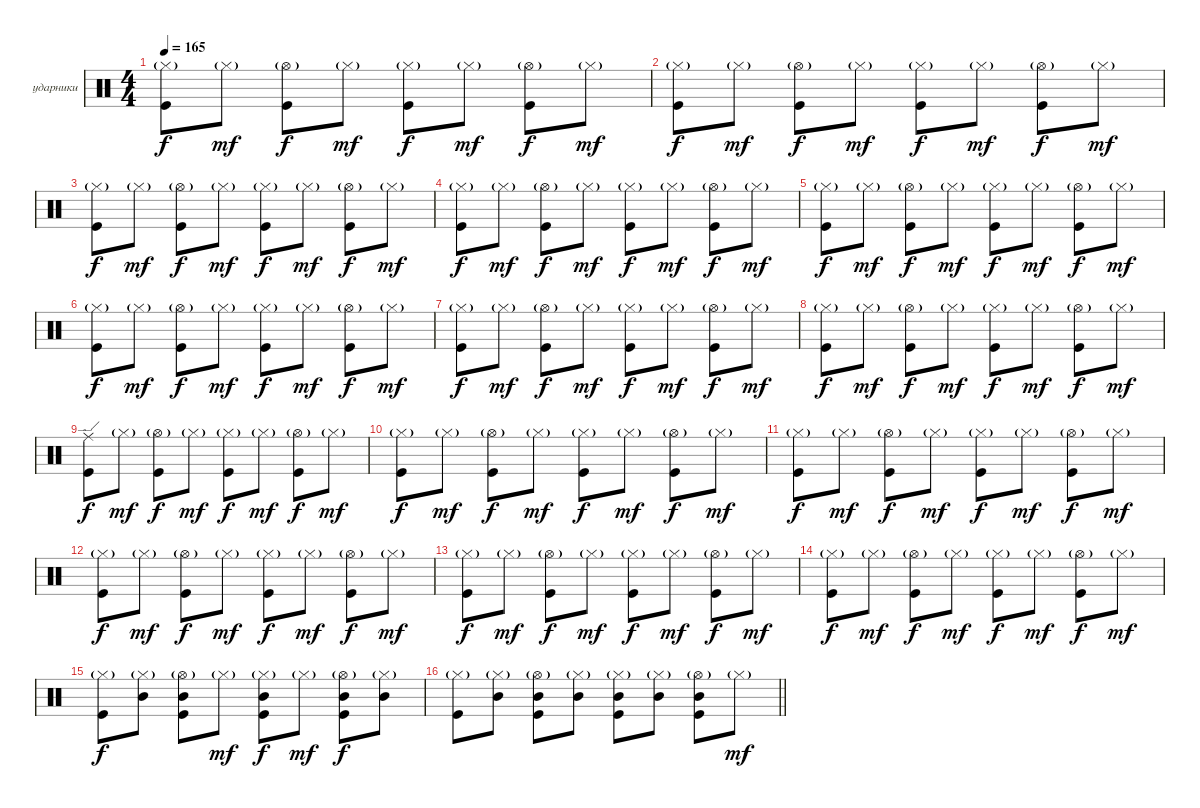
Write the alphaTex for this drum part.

\bracketExtendMode groupsimilarinstruments
\firstSystemTrackNameOrientation horizontal
\otherSystemsTrackNameOrientation horizontal
\track ("Георгий Гурьянов" "ударники") {instrument percussion}
\staff {score}
\articulation defaults
\ts (4 4)
\tempo 165
\clef neutral
\scale
0.333333
\ks c
("Hi-Hat (closed)"{g} "Kick (hit)").8{dy f} "Hi-Hat (closed)"{g}.8{dy mf} ("Hi-Hat (open)"{g} "Kick (hit)").8{dy f} "Hi-Hat (closed)"{g}.8{dy mf} ("Hi-Hat (closed)"{g} "Kick (hit)").8{dy f} "Hi-Hat (closed)"{g}.8{dy mf} ("Hi-Hat (open)"{g} "Kick (hit)").8{dy f} "Hi-Hat (closed)"{g}.8{dy mf} |
\scale
0.333333 ("Hi-Hat (closed)"{g} "Kick (hit)").8{dy f} "Hi-Hat (closed)"{g}.8{dy mf} ("Hi-Hat (open)"{g} "Kick (hit)").8{dy f} "Hi-Hat (closed)"{g}.8{dy mf} ("Hi-Hat (closed)"{g} "Kick (hit)").8{dy f} "Hi-Hat (closed)"{g}.8{dy mf} ("Hi-Hat (open)"{g} "Kick (hit)").8{dy f} "Hi-Hat (closed)"{g}.8{dy mf} |
\scale
0.333333 ("Hi-Hat (closed)"{g} "Kick (hit)").8{dy f} "Hi-Hat (closed)"{g}.8{dy mf} ("Hi-Hat (open)"{g} "Kick (hit)").8{dy f} "Hi-Hat (closed)"{g}.8{dy mf} ("Hi-Hat (closed)"{g} "Kick (hit)").8{dy f} "Hi-Hat (closed)"{g}.8{dy mf} ("Hi-Hat (open)"{g} "Kick (hit)").8{dy f} "Hi-Hat (closed)"{g}.8{dy mf} |
\scale
0.333333 ("Hi-Hat (closed)"{g} "Kick (hit)").8{dy f} "Hi-Hat (closed)"{g}.8{dy mf} ("Hi-Hat (open)"{g} "Kick (hit)").8{dy f} "Hi-Hat (closed)"{g}.8{dy mf} ("Hi-Hat (closed)"{g} "Kick (hit)").8{dy f} "Hi-Hat (closed)"{g}.8{dy mf} ("Hi-Hat (open)"{g} "Kick (hit)").8{dy f} "Hi-Hat (closed)"{g}.8{dy mf} |
\scale
0.333333 ("Hi-Hat (closed)"{g} "Kick (hit)").8{dy f} "Hi-Hat (closed)"{g}.8{dy mf} ("Hi-Hat (open)"{g} "Kick (hit)").8{dy f} "Hi-Hat (closed)"{g}.8{dy mf} ("Hi-Hat (closed)"{g} "Kick (hit)").8{dy f} "Hi-Hat (closed)"{g}.8{dy mf} ("Hi-Hat (open)"{g} "Kick (hit)").8{dy f} "Hi-Hat (closed)"{g}.8{dy mf} |
\scale
0.333333 ("Hi-Hat (closed)"{g} "Kick (hit)").8{dy f} "Hi-Hat (closed)"{g}.8{dy mf} ("Hi-Hat (open)"{g} "Kick (hit)").8{dy f} "Hi-Hat (closed)"{g}.8{dy mf} ("Hi-Hat (closed)"{g} "Kick (hit)").8{dy f} "Hi-Hat (closed)"{g}.8{dy mf} ("Hi-Hat (open)"{g} "Kick (hit)").8{dy f} "Hi-Hat (closed)"{g}.8{dy mf} |
\scale
0.333333 ("Hi-Hat (closed)"{g} "Kick (hit)").8{dy f} "Hi-Hat (closed)"{g}.8{dy mf} ("Hi-Hat (open)"{g} "Kick (hit)").8{dy f} "Hi-Hat (closed)"{g}.8{dy mf} ("Hi-Hat (closed)"{g} "Kick (hit)").8{dy f} "Hi-Hat (closed)"{g}.8{dy mf} ("Hi-Hat (open)"{g} "Kick (hit)").8{dy f} "Hi-Hat (closed)"{g}.8{dy mf} |
\scale
0.333333 ("Hi-Hat (closed)"{g} "Kick (hit)").8{dy f} "Hi-Hat (closed)"{g}.8{dy mf} ("Hi-Hat (open)"{g} "Kick (hit)").8{dy f} "Hi-Hat (closed)"{g}.8{dy mf} ("Hi-Hat (closed)"{g} "Kick (hit)").8{dy f} "Hi-Hat (closed)"{g}.8{dy mf} ("Hi-Hat (open)"{g} "Kick (hit)").8{dy f} "Hi-Hat (closed)"{g}.8{dy mf} |
\scale
0.333333 ("Ride (edge)" "Kick (hit)").8{dy f} "Hi-Hat (closed)"{g}.8{dy mf} ("Hi-Hat (open)"{g} "Kick (hit)").8{dy f} "Hi-Hat (closed)"{g}.8{dy mf} ("Hi-Hat (closed)"{g} "Kick (hit)").8{dy f} "Hi-Hat (closed)"{g}.8{dy mf} ("Hi-Hat (open)"{g} "Kick (hit)").8{dy f} "Hi-Hat (closed)"{g}.8{dy mf} |
\scale
0.333333 ("Hi-Hat (closed)"{g} "Kick (hit)").8{dy f} "Hi-Hat (closed)"{g}.8{dy mf} ("Hi-Hat (open)"{g} "Kick (hit)").8{dy f} "Hi-Hat (closed)"{g}.8{dy mf} ("Hi-Hat (closed)"{g} "Kick (hit)").8{dy f} "Hi-Hat (closed)"{g}.8{dy mf} ("Hi-Hat (open)"{g} "Kick (hit)").8{dy f} "Hi-Hat (closed)"{g}.8{dy mf} |
\scale
0.333333 ("Hi-Hat (closed)"{g} "Kick (hit)").8{dy f} "Hi-Hat (closed)"{g}.8{dy mf} ("Hi-Hat (open)"{g} "Kick (hit)").8{dy f} "Hi-Hat (closed)"{g}.8{dy mf} ("Hi-Hat (closed)"{g} "Kick (hit)").8{dy f} "Hi-Hat (closed)"{g}.8{dy mf} ("Hi-Hat (open)"{g} "Kick (hit)").8{dy f} "Hi-Hat (closed)"{g}.8{dy mf} |
\scale
0.333333 ("Hi-Hat (closed)"{g} "Kick (hit)").8{dy f} "Hi-Hat (closed)"{g}.8{dy mf} ("Hi-Hat (open)"{g} "Kick (hit)").8{dy f} "Hi-Hat (closed)"{g}.8{dy mf} ("Hi-Hat (closed)"{g} "Kick (hit)").8{dy f} "Hi-Hat (closed)"{g}.8{dy mf} ("Hi-Hat (open)"{g} "Kick (hit)").8{dy f} "Hi-Hat (closed)"{g}.8{dy mf} |
\scale
0.333333 ("Hi-Hat (closed)"{g} "Kick (hit)").8{dy f} "Hi-Hat (closed)"{g}.8{dy mf} ("Hi-Hat (open)"{g} "Kick (hit)").8{dy f} "Hi-Hat (closed)"{g}.8{dy mf} ("Hi-Hat (closed)"{g} "Kick (hit)").8{dy f} "Hi-Hat (closed)"{g}.8{dy mf} ("Hi-Hat (open)"{g} "Kick (hit)").8{dy f} "Hi-Hat (closed)"{g}.8{dy mf} |
\scale
0.333333 ("Hi-Hat (closed)"{g} "Kick (hit)").8{dy f} "Hi-Hat (closed)"{g}.8{dy mf} ("Hi-Hat (open)"{g} "Kick (hit)").8{dy f} "Hi-Hat (closed)"{g}.8{dy mf} ("Hi-Hat (closed)"{g} "Kick (hit)").8{dy f} "Hi-Hat (closed)"{g}.8{dy mf} ("Hi-Hat (open)"{g} "Kick (hit)").8{dy f} "Hi-Hat (closed)"{g}.8{dy mf} |
\scale
0.333333 ("Hi-Hat (closed)"{g} "Kick (hit)").8{dy f} ("Hi-Hat (closed)"{g} "Mid Tom (hit)").8 ("Hi-Hat (open)"{g} "Mid Tom (hit)" "Kick (hit)").8 "Hi-Hat (closed)"{g}.8{dy mf} ("Hi-Hat (closed)"{g} "Mid Tom (hit)" "Kick (hit)").8{dy f} "Hi-Hat (closed)"{g}.8{dy mf} ("Hi-Hat (open)"{g} "Mid Tom (hit)" "Kick (hit)").8{dy f} ("Hi-Hat (closed)"{g} "Mid Tom (hit)").8 |
\scale
0.333333
\barLineRight lightlight
("Hi-Hat (closed)"{g} "Kick (hit)").8 ("Hi-Hat (closed)"{g} "Mid Tom (hit)").8 ("Hi-Hat (open)"{g} "Mid Tom (hit)" "Kick (hit)").8 ("Hi-Hat (closed)"{g} "Mid Tom (hit)").8 ("Hi-Hat (closed)"{g} "Mid Tom (hit)" "Kick (hit)").8 ("Hi-Hat (closed)"{g} "Mid Tom (hit)").8 ("Hi-Hat (open)"{g} "Mid Tom (hit)" "Kick (hit)").8 "Hi-Hat (closed)"{g}.8{dy mf}
